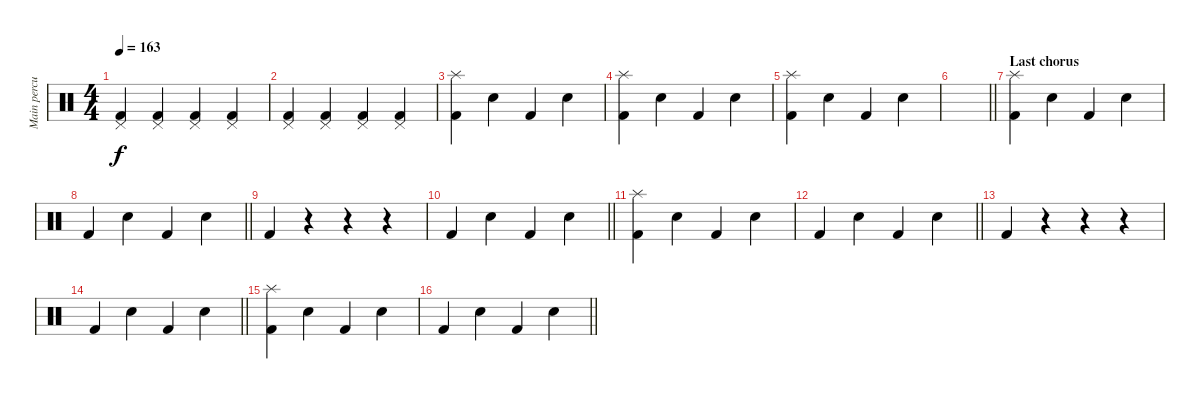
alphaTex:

\track ("Main percussion" "Main percu") {instrument percussion}
\staff {score}
\articulation defaults
\ts (4 4)
\tempo 163
\clef neutral
\ks c
("Pedal Hi-Hat (hit)" "Kick (hit) 2").4{dy f} ("Pedal Hi-Hat (hit)" "Kick (hit) 2").4 ("Pedal Hi-Hat (hit)" "Kick (hit) 2").4 ("Pedal Hi-Hat (hit)" "Kick (hit) 2").4 |
("Pedal Hi-Hat (hit)" "Kick (hit) 2").4 ("Pedal Hi-Hat (hit)" "Kick (hit) 2").4 ("Pedal Hi-Hat (hit)" "Kick (hit) 2").4 ("Pedal Hi-Hat (hit)" "Kick (hit) 2").4 |
("Kick (hit) 2" "Splash (hit)").4 "Electric Snare (hit)".4 "Kick (hit) 2".4 "Electric Snare (hit)".4 |
("Kick (hit) 2" "Splash (hit)").4 "Electric Snare (hit)".4 "Kick (hit) 2".4 "Electric Snare (hit)".4 |
("Kick (hit) 2" "Splash (hit)").4 "Electric Snare (hit)".4 "Kick (hit) 2".4 "Electric Snare (hit)".4 |
\barLineRight lightlight
|
\section ("" "Last chorus")
("Kick (hit) 2" "Splash (hit)").4 "Electric Snare (hit)".4 "Kick (hit) 2".4 "Electric Snare (hit)".4 |
\barLineRight lightlight "Kick (hit) 2".4 "Electric Snare (hit)".4 "Kick (hit) 2".4 "Electric Snare (hit)".4
|
"Kick (hit) 2".4 r.4 r.4 r.4 |
\barLineRight lightlight "Kick (hit) 2".4 "Electric Snare (hit)".4 "Kick (hit) 2".4 "Electric Snare (hit)".4
|
("Kick (hit) 2" "Splash (hit)").4 "Electric Snare (hit)".4 "Kick (hit) 2".4 "Electric Snare (hit)".4 |
\barLineRight lightlight "Kick (hit) 2".4 "Electric Snare (hit)".4 "Kick (hit) 2".4 "Electric Snare (hit)".4
|
"Kick (hit) 2".4 r.4 r.4 r.4 |
\barLineRight lightlight "Kick (hit) 2".4 "Electric Snare (hit)".4 "Kick (hit) 2".4 "Electric Snare (hit)".4
|
("Kick (hit) 2" "Splash (hit)").4 "Electric Snare (hit)".4 "Kick (hit) 2".4 "Electric Snare (hit)".4 |
\barLineRight lightlight "Kick (hit) 2".4 "Electric Snare (hit)".4 "Kick (hit) 2".4 "Electric Snare (hit)".4
